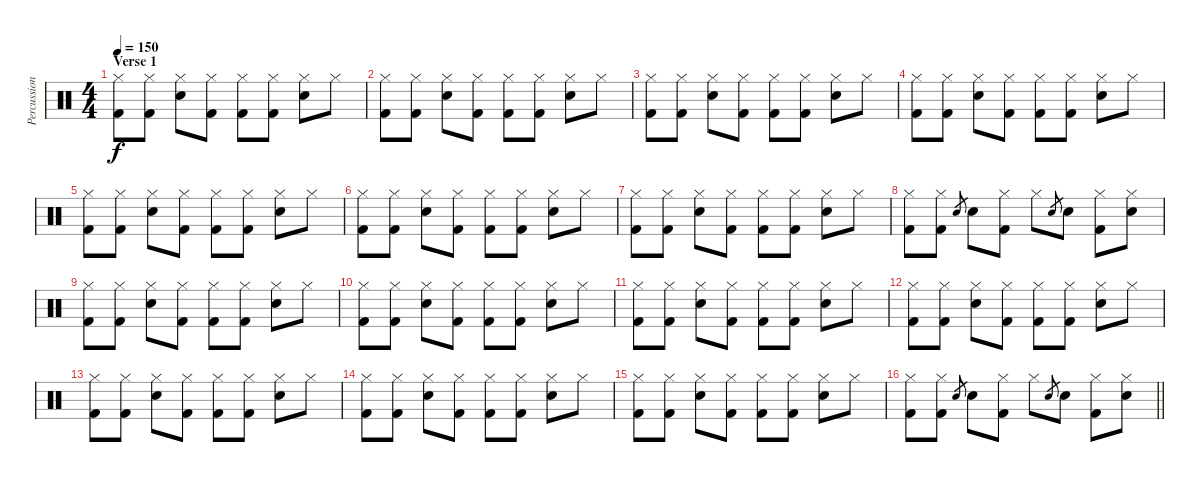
\track ("Percussion" "Percussion") {instrument percussion}
\staff {score}
\articulation defaults
\ts (4 4)
\section ("" "Verse 1")
\tempo 150
\clef neutral
\ks c
("Hi-Hat (closed)" "Kick (hit) 2").8{dy f} ("Hi-Hat (closed)" "Kick (hit) 2").8 ("Hi-Hat (closed)" "Snare (hit) 2").8 ("Hi-Hat (closed)" "Kick (hit) 2").8 ("Hi-Hat (closed)" "Kick (hit) 2").8 ("Hi-Hat (closed)" "Kick (hit) 2").8 ("Hi-Hat (closed)" "Snare (hit) 2").8 "Hi-Hat (closed)".8 |
("Hi-Hat (closed)" "Kick (hit) 2").8 ("Hi-Hat (closed)" "Kick (hit) 2").8 ("Hi-Hat (closed)" "Snare (hit) 2").8 ("Hi-Hat (closed)" "Kick (hit) 2").8 ("Hi-Hat (closed)" "Kick (hit) 2").8 ("Hi-Hat (closed)" "Kick (hit) 2").8 ("Hi-Hat (closed)" "Snare (hit) 2").8 "Hi-Hat (closed)".8 |
("Hi-Hat (closed)" "Kick (hit) 2").8 ("Hi-Hat (closed)" "Kick (hit) 2").8 ("Hi-Hat (closed)" "Snare (hit) 2").8 ("Hi-Hat (closed)" "Kick (hit) 2").8 ("Hi-Hat (closed)" "Kick (hit) 2").8 ("Hi-Hat (closed)" "Kick (hit) 2").8 ("Hi-Hat (closed)" "Snare (hit) 2").8 "Hi-Hat (closed)".8 |
("Hi-Hat (closed)" "Kick (hit) 2").8 ("Hi-Hat (closed)" "Kick (hit) 2").8 ("Hi-Hat (closed)" "Snare (hit) 2").8 ("Hi-Hat (closed)" "Kick (hit) 2").8 ("Hi-Hat (closed)" "Kick (hit) 2").8 ("Hi-Hat (closed)" "Kick (hit) 2").8 ("Hi-Hat (closed)" "Snare (hit) 2").8 "Hi-Hat (closed)".8 |
("Hi-Hat (closed)" "Kick (hit) 2").8 ("Hi-Hat (closed)" "Kick (hit) 2").8 ("Hi-Hat (closed)" "Snare (hit) 2").8 ("Hi-Hat (closed)" "Kick (hit) 2").8 ("Hi-Hat (closed)" "Kick (hit) 2").8 ("Hi-Hat (closed)" "Kick (hit) 2").8 ("Hi-Hat (closed)" "Snare (hit) 2").8 "Hi-Hat (closed)".8 |
("Hi-Hat (closed)" "Kick (hit) 2").8 ("Hi-Hat (closed)" "Kick (hit) 2").8 ("Hi-Hat (closed)" "Snare (hit) 2").8 ("Hi-Hat (closed)" "Kick (hit) 2").8 ("Hi-Hat (closed)" "Kick (hit) 2").8 ("Hi-Hat (closed)" "Kick (hit) 2").8 ("Hi-Hat (closed)" "Snare (hit) 2").8 "Hi-Hat (closed)".8 |
("Hi-Hat (closed)" "Kick (hit) 2").8 ("Hi-Hat (closed)" "Kick (hit) 2").8 ("Hi-Hat (closed)" "Snare (hit) 2").8 ("Hi-Hat (closed)" "Kick (hit) 2").8 ("Hi-Hat (closed)" "Kick (hit) 2").8 ("Hi-Hat (closed)" "Kick (hit) 2").8 ("Hi-Hat (closed)" "Snare (hit) 2").8 "Hi-Hat (closed)".8 |
("Hi-Hat (closed)" "Kick (hit) 2").8 ("Hi-Hat (closed)" "Kick (hit) 2").8 "Snare (hit) 2".8{gr} "Snare (hit) 2".8 ("Hi-Hat (closed)" "Kick (hit) 2").8 "Hi-Hat (closed)".8 "Snare (hit) 2".8{gr} "Snare (hit) 2".8 ("Hi-Hat (closed)" "Kick (hit) 2").8 ("Hi-Hat (closed)" "Snare (hit) 2").8 |
("Hi-Hat (closed)" "Kick (hit) 2").8 ("Hi-Hat (closed)" "Kick (hit) 2").8 ("Hi-Hat (closed)" "Snare (hit) 2").8 ("Hi-Hat (closed)" "Kick (hit) 2").8 ("Hi-Hat (closed)" "Kick (hit) 2").8 ("Hi-Hat (closed)" "Kick (hit) 2").8 ("Hi-Hat (closed)" "Snare (hit) 2").8 "Hi-Hat (closed)".8 |
("Hi-Hat (closed)" "Kick (hit) 2").8 ("Hi-Hat (closed)" "Kick (hit) 2").8 ("Hi-Hat (closed)" "Snare (hit) 2").8 ("Hi-Hat (closed)" "Kick (hit) 2").8 ("Hi-Hat (closed)" "Kick (hit) 2").8 ("Hi-Hat (closed)" "Kick (hit) 2").8 ("Hi-Hat (closed)" "Snare (hit) 2").8 "Hi-Hat (closed)".8 |
("Hi-Hat (closed)" "Kick (hit) 2").8 ("Hi-Hat (closed)" "Kick (hit) 2").8 ("Hi-Hat (closed)" "Snare (hit) 2").8 ("Hi-Hat (closed)" "Kick (hit) 2").8 ("Hi-Hat (closed)" "Kick (hit) 2").8 ("Hi-Hat (closed)" "Kick (hit) 2").8 ("Hi-Hat (closed)" "Snare (hit) 2").8 "Hi-Hat (closed)".8 |
("Hi-Hat (closed)" "Kick (hit) 2").8 ("Hi-Hat (closed)" "Kick (hit) 2").8 ("Hi-Hat (closed)" "Snare (hit) 2").8 ("Hi-Hat (closed)" "Kick (hit) 2").8 ("Hi-Hat (closed)" "Kick (hit) 2").8 ("Hi-Hat (closed)" "Kick (hit) 2").8 ("Hi-Hat (closed)" "Snare (hit) 2").8 "Hi-Hat (closed)".8 |
("Hi-Hat (closed)" "Kick (hit) 2").8 ("Hi-Hat (closed)" "Kick (hit) 2").8 ("Hi-Hat (closed)" "Snare (hit) 2").8 ("Hi-Hat (closed)" "Kick (hit) 2").8 ("Hi-Hat (closed)" "Kick (hit) 2").8 ("Hi-Hat (closed)" "Kick (hit) 2").8 ("Hi-Hat (closed)" "Snare (hit) 2").8 "Hi-Hat (closed)".8 |
("Hi-Hat (closed)" "Kick (hit) 2").8 ("Hi-Hat (closed)" "Kick (hit) 2").8 ("Hi-Hat (closed)" "Snare (hit) 2").8 ("Hi-Hat (closed)" "Kick (hit) 2").8 ("Hi-Hat (closed)" "Kick (hit) 2").8 ("Hi-Hat (closed)" "Kick (hit) 2").8 ("Hi-Hat (closed)" "Snare (hit) 2").8 "Hi-Hat (closed)".8 |
("Hi-Hat (closed)" "Kick (hit) 2").8 ("Hi-Hat (closed)" "Kick (hit) 2").8 ("Hi-Hat (closed)" "Snare (hit) 2").8 ("Hi-Hat (closed)" "Kick (hit) 2").8 ("Hi-Hat (closed)" "Kick (hit) 2").8 ("Hi-Hat (closed)" "Kick (hit) 2").8 ("Hi-Hat (closed)" "Snare (hit) 2").8 "Hi-Hat (closed)".8 |
\barLineRight lightlight
("Hi-Hat (closed)" "Kick (hit) 2").8 ("Hi-Hat (closed)" "Kick (hit) 2").8 "Snare (hit) 2".8{gr} "Snare (hit) 2".8 ("Hi-Hat (closed)" "Kick (hit) 2").8 "Hi-Hat (closed)".8 "Snare (hit) 2".8{gr} "Snare (hit) 2".8 ("Hi-Hat (closed)" "Kick (hit) 2").8 ("Hi-Hat (closed)" "Snare (hit) 2").8
